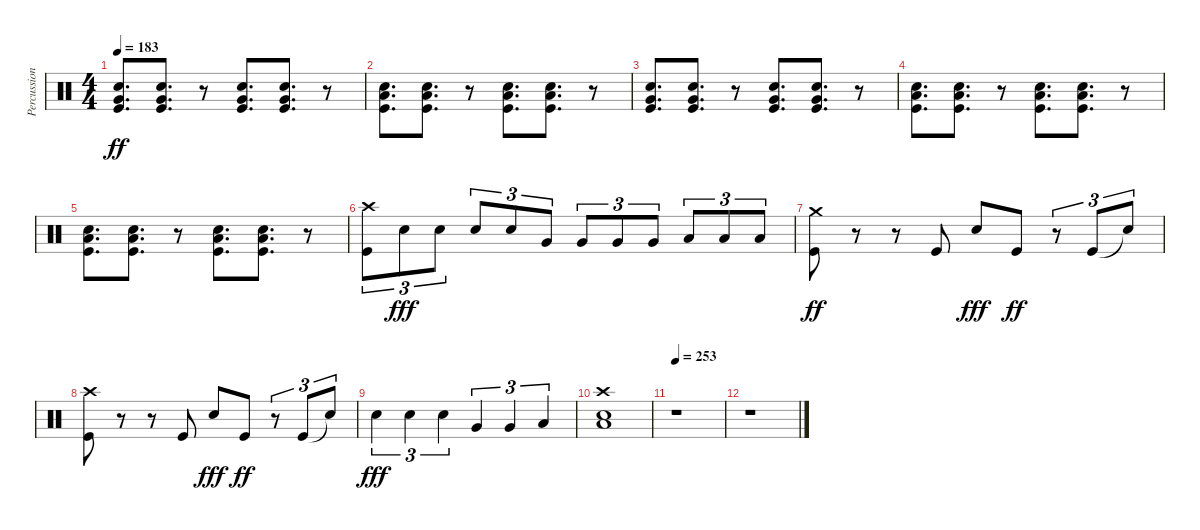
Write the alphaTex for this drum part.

\track ("Percussion" "Percussion") {instrument percussion}
\staff {score}
\articulation defaults
\ts (4 4)
\tempo 183
\clef neutral
\ks c
("Very Low Tom (hit)" "Snare (hit) 2" "Kick (hit)").8{d dy ff} ("Very Low Tom (hit)" "Snare (hit) 2" "Kick (hit)").8{d} r.8 ("Very Low Tom (hit)" "Snare (hit) 2" "Kick (hit)").8{d} ("Very Low Tom (hit)" "Snare (hit) 2" "Kick (hit)").8{d} r.8 |
("Low Floor Tom (hit)" "Snare (hit) 2" "Kick (hit)").8{d} ("Low Floor Tom (hit)" "Snare (hit) 2" "Kick (hit)").8{d} r.8 ("Low Floor Tom (hit)" "Snare (hit) 2" "Kick (hit)").8{d} ("Low Floor Tom (hit)" "Snare (hit) 2" "Kick (hit)").8{d} r.8 |
("Very Low Tom (hit)" "Snare (hit) 2" "Kick (hit)").8{d} ("Very Low Tom (hit)" "Snare (hit) 2" "Kick (hit)").8{d} r.8 ("Very Low Tom (hit)" "Snare (hit) 2" "Kick (hit)").8{d} ("Very Low Tom (hit)" "Snare (hit) 2" "Kick (hit)").8{d} r.8 |
("Low Floor Tom (hit)" "Snare (hit) 2" "Kick (hit)").8{d} ("Low Floor Tom (hit)" "Snare (hit) 2" "Kick (hit)").8{d} r.8 ("Low Floor Tom (hit)" "Snare (hit) 2" "Kick (hit)").8{d} ("Low Floor Tom (hit)" "Snare (hit) 2" "Kick (hit)").8{d} r.8 |
("Low Floor Tom (hit)" "Snare (hit) 2" "Kick (hit)").8{d} ("Low Floor Tom (hit)" "Snare (hit) 2" "Kick (hit)").8{d} r.8 ("Low Floor Tom (hit)" "Snare (hit) 2" "Kick (hit)").8{d} ("Low Floor Tom (hit)" "Snare (hit) 2" "Kick (hit)").8{d} r.8 |
("Crash high (hit)" "Kick (hit)").8{tu (3 2)} "Snare (hit) 2".8{tu (3 2) dy fff} "Snare (hit) 2".8{tu (3 2)} "Snare (hit) 2".8{tu (3 2)} "Snare (hit) 2".8{tu (3 2)} "Very Low Tom (hit)".8{tu (3 2)} "Very Low Tom (hit)".8{tu (3 2)} "Very Low Tom (hit)".8{tu (3 2)} "Very Low Tom (hit)".8{tu (3 2)} "Low Floor Tom (hit)".8{tu (3 2)} "Low Floor Tom (hit)".8{tu (3 2)} "Low Floor Tom (hit)".8{tu (3 2)} |
("Crash medium (hit)" "Kick (hit)").8{dy ff} r.8 r.8 "Kick (hit)".8 "Snare (hit) 2".8{dy fff} "Kick (hit)".8{dy ff} r.8{tu (3 2)} "Kick (hit)".8{tu (3 2)} "Snare (hit)"{t}.8{tu (3 2)} |
("Crash high (hit)" "Kick (hit)").8 r.8 r.8 "Kick (hit)".8 "Snare (hit) 2".8{dy fff} "Kick (hit)".8{dy ff} r.8{tu (3 2)} "Kick (hit)".8{tu (3 2)} "Snare (hit)"{t}.8{tu (3 2)} |
"Snare (hit) 2".4{tu (3 2) dy fff} "Snare (hit) 2".4{tu (3 2)} "Snare (hit) 2".4{tu (3 2)} "Very Low Tom (hit)".4{tu (3 2)} "Very Low Tom (hit)".4{tu (3 2)} "Low Floor Tom (hit)".4{tu (3 2)} |
("Crash high (hit)" "Low Floor Tom (hit)" "Snare (hit) 2").1 |
\tempo 253
r.1 |
r.1
